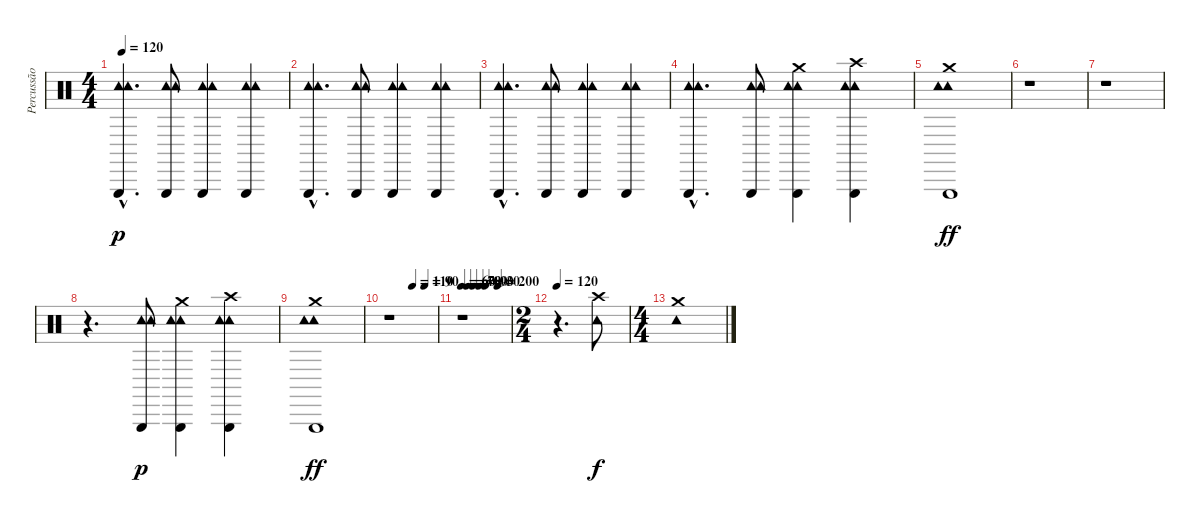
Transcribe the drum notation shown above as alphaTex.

\track ("Percussão" "Percussão") {instrument percussion}
\staff {score}
\articulation defaults
\ts (4 4)
\tempo 120
\clef neutral
\ks c
("Tambourine (hit)"{hac} "Tambourine (hit)"{hac} "Triangle (hit)"{hac}).4{d dy p} ("Tambourine (hit)" "Tambourine (hit)" "Triangle (hit)").8 ("Tambourine (hit)" "Tambourine (hit)" "Triangle (hit)").4 ("Tambourine (hit)" "Tambourine (hit)" "Triangle (hit)").4 |
("Tambourine (hit)"{hac} "Tambourine (hit)"{hac} "Triangle (hit)"{hac}).4{d} ("Tambourine (hit)" "Tambourine (hit)" "Triangle (hit)").8 ("Tambourine (hit)" "Tambourine (hit)" "Triangle (hit)").4 ("Tambourine (hit)" "Tambourine (hit)" "Triangle (hit)").4 |
("Tambourine (hit)"{hac} "Tambourine (hit)"{hac} "Triangle (hit)"{hac}).4{d} ("Tambourine (hit)" "Tambourine (hit)" "Triangle (hit)").8 ("Tambourine (hit)" "Tambourine (hit)" "Triangle (hit)").4 ("Tambourine (hit)" "Tambourine (hit)" "Triangle (hit)").4 |
("Tambourine (hit)"{hac} "Tambourine (hit)"{hac} "Triangle (hit)"{hac}).4{d} ("Tambourine (hit)" "Tambourine (hit)" "Triangle (hit)").8 ("Tambourine (hit)" "Tambourine (hit)" "Triangle (hit)" "Crash medium (hit)").4 ("Tambourine (hit)" "Tambourine (hit)" "Triangle (hit)" "Crash high (hit)").4 |
("Tambourine (hit)" "Tambourine (hit)" "Triangle (hit)" "Crash medium (hit)").1{dy ff} |
r.1 |
r.1 |
r.4{d} ("Tambourine (hit)" "Tambourine (hit)" "Triangle (hit)").8{dy p} ("Tambourine (hit)" "Tambourine (hit)" "Triangle (hit)" "Crash medium (hit)").4 ("Tambourine (hit)" "Tambourine (hit)" "Triangle (hit)" "Crash high (hit)").4 |
("Tambourine (hit)" "Tambourine (hit)" "Triangle (hit)" "Crash medium (hit)").1{dy ff} |
\tempo (110 0.5)
\tempo (90 0.75)
r.1 |
\tempo 60
\tempo (70 0.125)
\tempo (80 0.25)
\tempo (90 0.375)
\tempo (30 0.5)
\tempo (200 0.75)
r.1 |
\ts (2 4)
\tempo 120
r.4{d} ("Tambourine (hit)" "Crash high (hit)").8{dy f} |
\ts (4 4)
("Tambourine (hit)" "Crash medium (hit)").1
